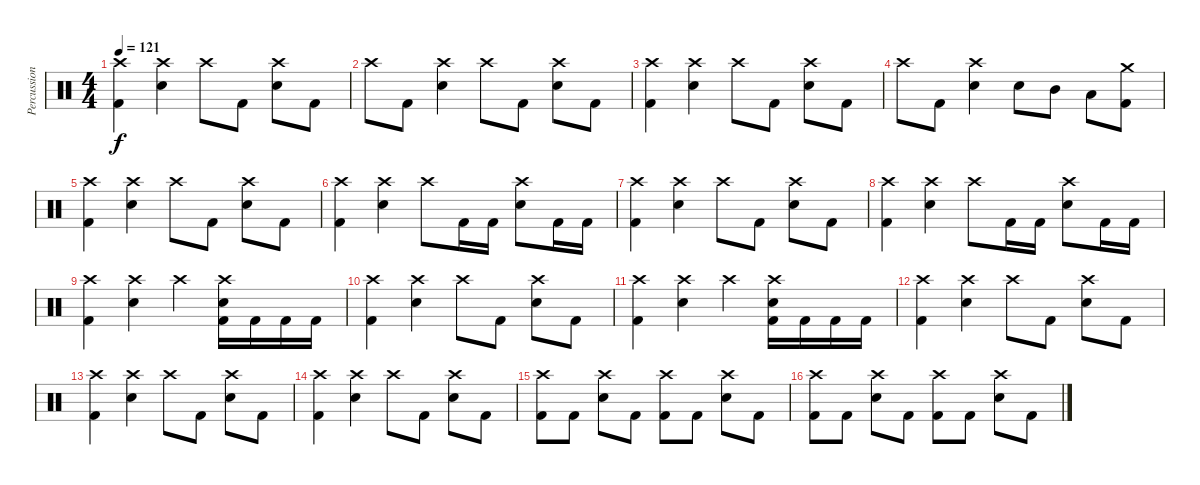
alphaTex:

\track ("Percussion" "Percussion") {instrument percussion}
\staff {score}
\articulation defaults
\ts (4 4)
\tempo 121
\clef neutral
\ks c
("Crash high (hit)" "Kick (hit) 2").4{dy f} ("Crash high (hit)" "Snare (hit) 2").4 "Crash high (hit)".8 "Kick (hit) 2".8 ("Crash high (hit)" "Snare (hit) 2").8 "Kick (hit) 2".8 |
"Crash high (hit)".8 "Kick (hit) 2".8 ("Crash high (hit)" "Snare (hit) 2").4 "Crash high (hit)".8 "Kick (hit) 2".8 ("Crash high (hit)" "Snare (hit) 2").8 "Kick (hit) 2".8 |
("Crash high (hit)" "Kick (hit) 2").4 ("Crash high (hit)" "Snare (hit) 2").4 "Crash high (hit)".8 "Kick (hit) 2".8 ("Crash high (hit)" "Snare (hit) 2").8 "Kick (hit) 2".8 |
"Crash high (hit)".8 "Kick (hit) 2".8 ("Crash high (hit)" "Snare (hit) 2").4 "Snare (hit) 2".8 "Mid Tom (hit)".8 "Low Tom (hit)".8 ("Crash medium (hit)" "Kick (hit) 2").8 |
("Crash high (hit)" "Kick (hit) 2").4 ("Crash high (hit)" "Snare (hit) 2").4 "Crash high (hit)".8 "Kick (hit) 2".8 ("Crash high (hit)" "Snare (hit) 2").8 "Kick (hit) 2".8 |
("Crash high (hit)" "Kick (hit) 2").4 ("Crash high (hit)" "Snare (hit) 2").4 "Crash high (hit)".8 "Kick (hit) 2".16 "Kick (hit) 2".16 ("Crash high (hit)" "Snare (hit) 2").8 "Kick (hit) 2".16 "Kick (hit) 2".16 |
("Crash high (hit)" "Kick (hit) 2").4 ("Crash high (hit)" "Snare (hit) 2").4 "Crash high (hit)".8 "Kick (hit) 2".8 ("Crash high (hit)" "Snare (hit) 2").8 "Kick (hit) 2".8 |
("Crash high (hit)" "Kick (hit) 2").4 ("Crash high (hit)" "Snare (hit) 2").4 "Crash high (hit)".8 "Kick (hit) 2".16 "Kick (hit) 2".16 ("Crash high (hit)" "Snare (hit) 2").8 "Kick (hit) 2".16 "Kick (hit) 2".16 |
("Crash high (hit)" "Kick (hit) 2").4 ("Crash high (hit)" "Snare (hit) 2").4 "Crash high (hit)".4 ("Crash high (hit)" "Snare (hit) 2" "Kick (hit) 2").16 "Kick (hit) 2".16 "Kick (hit) 2".16 "Kick (hit) 2".16 |
("Crash high (hit)" "Kick (hit) 2").4 ("Crash high (hit)" "Snare (hit) 2").4 "Crash high (hit)".8 "Kick (hit) 2".8 ("Crash high (hit)" "Snare (hit) 2").8 "Kick (hit) 2".8 |
("Crash high (hit)" "Kick (hit) 2").4 ("Crash high (hit)" "Snare (hit) 2").4 "Crash high (hit)".4 ("Crash high (hit)" "Snare (hit) 2" "Kick (hit) 2").16 "Kick (hit) 2".16 "Kick (hit) 2".16 "Kick (hit) 2".16 |
("Crash high (hit)" "Kick (hit) 2").4 ("Crash high (hit)" "Snare (hit) 2").4 "Crash high (hit)".8 "Kick (hit) 2".8 ("Crash high (hit)" "Snare (hit) 2").8 "Kick (hit) 2".8 |
("Crash high (hit)" "Kick (hit) 2").4 ("Crash high (hit)" "Snare (hit) 2").4 "Crash high (hit)".8 "Kick (hit) 2".8 ("Crash high (hit)" "Snare (hit) 2").8 "Kick (hit) 2".8 |
("Crash high (hit)" "Kick (hit) 2").4 ("Crash high (hit)" "Snare (hit) 2").4 "Crash high (hit)".8 "Kick (hit) 2".8 ("Crash high (hit)" "Snare (hit) 2").8 "Kick (hit) 2".8 |
("Crash high (hit)" "Kick (hit) 2").8 "Kick (hit) 2".8 ("Crash high (hit)" "Snare (hit) 2").8 "Kick (hit) 2".8 ("Crash high (hit)" "Kick (hit) 2").8 "Kick (hit) 2".8 ("Crash high (hit)" "Snare (hit) 2").8 "Kick (hit) 2".8 |
("Crash high (hit)" "Kick (hit) 2").8 "Kick (hit) 2".8 ("Crash high (hit)" "Snare (hit) 2").8 "Kick (hit) 2".8 ("Crash high (hit)" "Kick (hit) 2").8 "Kick (hit) 2".8 ("Crash high (hit)" "Snare (hit) 2").8 "Kick (hit) 2".8
